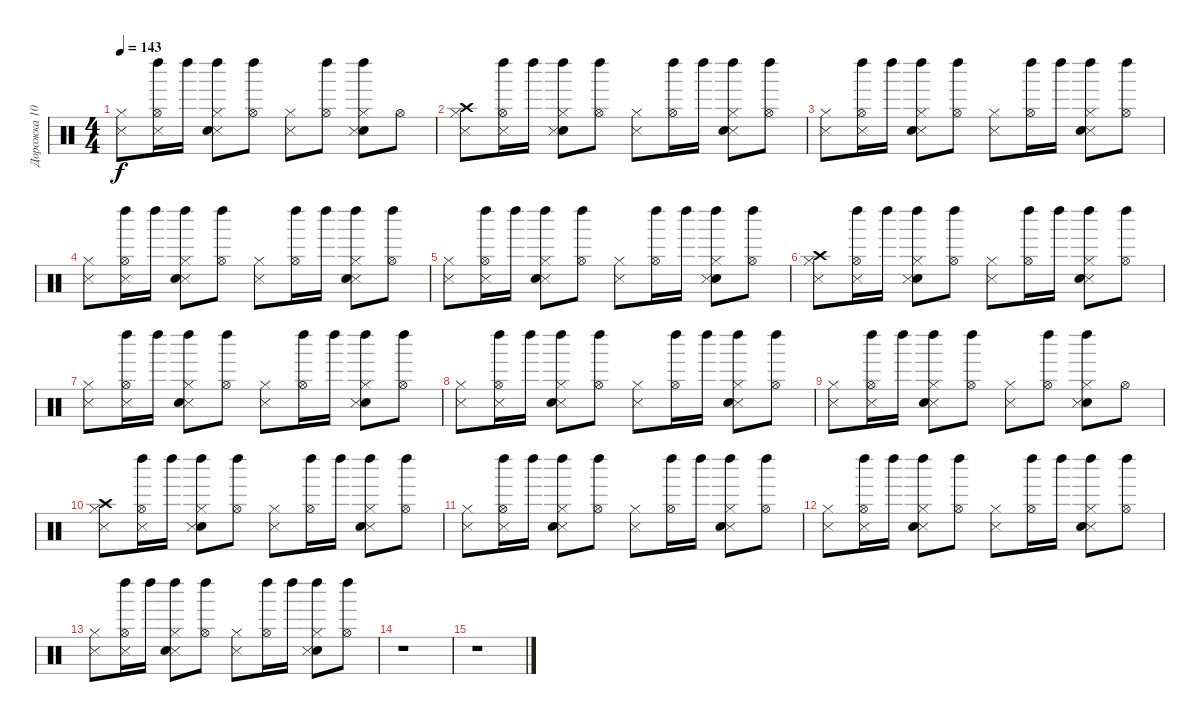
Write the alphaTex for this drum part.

\track ("Дорожка 10" "Дорожка 10") {instrument percussion}
\staff {score}
\articulation defaults
\ts (4 4)
\tempo 143
\clef neutral
\ks c
("Metronome (hit)" "Hi-Hat (closed)").8{dy f} ("Metronome (hit)" "Hi-Hat (open)" "Left Maraca (hit)").16 "Left Maraca (hit)".16 ("Metronome (hit)" "Electric Snare (hit)" "Hi-Hat (closed)" "Left Maraca (hit)").8 ("Hi-Hat (open)" "Left Maraca (hit)").8 ("Metronome (hit)" "Hi-Hat (closed)").8 ("Hi-Hat (open)" "Left Maraca (hit)").8 ("Electric Snare (hit)" "Metronome (hit)" "Hi-Hat (closed)" "Left Maraca (hit)").8 "Hi-Hat (open)".8 |
("Metronome (hit)" "Crash high (hit)" "Hi-Hat (closed)").8 ("Metronome (hit)" "Hi-Hat (open)" "Left Maraca (hit)").16 "Left Maraca (hit)".16 ("Electric Snare (hit)" "Metronome (hit)" "Hi-Hat (closed)" "Left Maraca (hit)").8 ("Hi-Hat (open)" "Left Maraca (hit)").8 ("Metronome (hit)" "Hi-Hat (closed)").8 ("Hi-Hat (open)" "Left Maraca (hit)").16 "Left Maraca (hit)".16 ("Metronome (hit)" "Electric Snare (hit)" "Hi-Hat (closed)" "Left Maraca (hit)").8 ("Hi-Hat (open)" "Left Maraca (hit)").8 |
("Metronome (hit)" "Hi-Hat (closed)").8 ("Metronome (hit)" "Hi-Hat (open)" "Left Maraca (hit)").16 "Left Maraca (hit)".16 ("Metronome (hit)" "Electric Snare (hit)" "Hi-Hat (closed)" "Left Maraca (hit)").8 ("Hi-Hat (open)" "Left Maraca (hit)").8 ("Metronome (hit)" "Hi-Hat (closed)").8 ("Hi-Hat (open)" "Left Maraca (hit)").16 "Left Maraca (hit)".16 ("Metronome (hit)" "Electric Snare (hit)" "Hi-Hat (closed)" "Left Maraca (hit)").8 ("Hi-Hat (open)" "Left Maraca (hit)").8 |
("Metronome (hit)" "Hi-Hat (closed)").8 ("Metronome (hit)" "Hi-Hat (open)" "Left Maraca (hit)").16 "Left Maraca (hit)".16 ("Metronome (hit)" "Electric Snare (hit)" "Hi-Hat (closed)" "Left Maraca (hit)").8 ("Hi-Hat (open)" "Left Maraca (hit)").8 ("Metronome (hit)" "Hi-Hat (closed)").8 ("Hi-Hat (open)" "Left Maraca (hit)").16 "Left Maraca (hit)".16 ("Metronome (hit)" "Electric Snare (hit)" "Hi-Hat (closed)" "Left Maraca (hit)").8 ("Hi-Hat (open)" "Left Maraca (hit)").8 |
("Metronome (hit)" "Hi-Hat (closed)").8 ("Metronome (hit)" "Hi-Hat (open)" "Left Maraca (hit)").16 "Left Maraca (hit)".16 ("Metronome (hit)" "Electric Snare (hit)" "Hi-Hat (closed)" "Left Maraca (hit)").8 ("Hi-Hat (open)" "Left Maraca (hit)").8 ("Metronome (hit)" "Hi-Hat (closed)").8 ("Hi-Hat (open)" "Left Maraca (hit)").16 "Left Maraca (hit)".16 ("Electric Snare (hit)" "Metronome (hit)" "Hi-Hat (closed)" "Left Maraca (hit)").8 ("Hi-Hat (open)" "Left Maraca (hit)").8 |
("Metronome (hit)" "Crash high (hit)" "Hi-Hat (closed)").8 ("Metronome (hit)" "Hi-Hat (open)" "Left Maraca (hit)").16 "Left Maraca (hit)".16 ("Electric Snare (hit)" "Metronome (hit)" "Hi-Hat (closed)" "Left Maraca (hit)").8 ("Hi-Hat (open)" "Left Maraca (hit)").8 ("Metronome (hit)" "Hi-Hat (closed)").8 ("Hi-Hat (open)" "Left Maraca (hit)").16 "Left Maraca (hit)".16 ("Metronome (hit)" "Electric Snare (hit)" "Hi-Hat (closed)" "Left Maraca (hit)").8 ("Hi-Hat (open)" "Left Maraca (hit)").8 |
("Metronome (hit)" "Hi-Hat (closed)").8 ("Metronome (hit)" "Hi-Hat (open)" "Left Maraca (hit)").16 "Left Maraca (hit)".16 ("Metronome (hit)" "Electric Snare (hit)" "Hi-Hat (closed)" "Left Maraca (hit)").8 ("Hi-Hat (open)" "Left Maraca (hit)").8 ("Metronome (hit)" "Hi-Hat (closed)").8 ("Hi-Hat (open)" "Left Maraca (hit)").16 "Left Maraca (hit)".16 ("Electric Snare (hit)" "Metronome (hit)" "Hi-Hat (closed)" "Left Maraca (hit)").8 ("Hi-Hat (open)" "Left Maraca (hit)").8 |
("Metronome (hit)" "Hi-Hat (closed)").8 ("Metronome (hit)" "Hi-Hat (open)" "Left Maraca (hit)").16 "Left Maraca (hit)".16 ("Metronome (hit)" "Electric Snare (hit)" "Hi-Hat (closed)" "Left Maraca (hit)").8 ("Hi-Hat (open)" "Left Maraca (hit)").8 ("Metronome (hit)" "Hi-Hat (closed)").8 ("Hi-Hat (open)" "Left Maraca (hit)").16 "Left Maraca (hit)".16 ("Metronome (hit)" "Electric Snare (hit)" "Hi-Hat (closed)" "Left Maraca (hit)").8 ("Hi-Hat (open)" "Left Maraca (hit)").8 |
("Metronome (hit)" "Hi-Hat (closed)").8 ("Metronome (hit)" "Hi-Hat (open)" "Left Maraca (hit)").16 "Left Maraca (hit)".16 ("Metronome (hit)" "Electric Snare (hit)" "Hi-Hat (closed)" "Left Maraca (hit)").8 ("Hi-Hat (open)" "Left Maraca (hit)").8 ("Metronome (hit)" "Hi-Hat (closed)").8 ("Hi-Hat (open)" "Left Maraca (hit)").8 ("Electric Snare (hit)" "Metronome (hit)" "Hi-Hat (closed)" "Left Maraca (hit)").8 "Hi-Hat (open)".8 |
("Metronome (hit)" "Crash high (hit)" "Hi-Hat (closed)").8 ("Metronome (hit)" "Hi-Hat (open)" "Left Maraca (hit)").16 "Left Maraca (hit)".16 ("Electric Snare (hit)" "Metronome (hit)" "Hi-Hat (closed)" "Left Maraca (hit)").8 ("Hi-Hat (open)" "Left Maraca (hit)").8 ("Metronome (hit)" "Hi-Hat (closed)").8 ("Hi-Hat (open)" "Left Maraca (hit)").16 "Left Maraca (hit)".16 ("Metronome (hit)" "Electric Snare (hit)" "Hi-Hat (closed)" "Left Maraca (hit)").8 ("Hi-Hat (open)" "Left Maraca (hit)").8 |
("Metronome (hit)" "Hi-Hat (closed)").8 ("Metronome (hit)" "Hi-Hat (open)" "Left Maraca (hit)").16 "Left Maraca (hit)".16 ("Metronome (hit)" "Electric Snare (hit)" "Hi-Hat (closed)" "Left Maraca (hit)").8 ("Hi-Hat (open)" "Left Maraca (hit)").8 ("Metronome (hit)" "Hi-Hat (closed)").8 ("Hi-Hat (open)" "Left Maraca (hit)").16 "Left Maraca (hit)".16 ("Metronome (hit)" "Electric Snare (hit)" "Hi-Hat (closed)" "Left Maraca (hit)").8 ("Hi-Hat (open)" "Left Maraca (hit)").8 |
("Metronome (hit)" "Hi-Hat (closed)").8 ("Metronome (hit)" "Hi-Hat (open)" "Left Maraca (hit)").16 "Left Maraca (hit)".16 ("Metronome (hit)" "Electric Snare (hit)" "Hi-Hat (closed)" "Left Maraca (hit)").8 ("Hi-Hat (open)" "Left Maraca (hit)").8 ("Metronome (hit)" "Hi-Hat (closed)").8 ("Hi-Hat (open)" "Left Maraca (hit)").16 "Left Maraca (hit)".16 ("Metronome (hit)" "Electric Snare (hit)" "Hi-Hat (closed)" "Left Maraca (hit)").8 ("Hi-Hat (open)" "Left Maraca (hit)").8 |
("Metronome (hit)" "Hi-Hat (closed)").8 ("Metronome (hit)" "Hi-Hat (open)" "Left Maraca (hit)").16 "Left Maraca (hit)".16 ("Metronome (hit)" "Electric Snare (hit)" "Hi-Hat (closed)" "Left Maraca (hit)").8 ("Hi-Hat (open)" "Left Maraca (hit)").8 ("Metronome (hit)" "Hi-Hat (closed)").8 ("Hi-Hat (open)" "Left Maraca (hit)").16 "Left Maraca (hit)".16 ("Electric Snare (hit)" "Metronome (hit)" "Hi-Hat (closed)" "Left Maraca (hit)").8 ("Hi-Hat (open)" "Left Maraca (hit)").8 |
r.1 |
r.1
